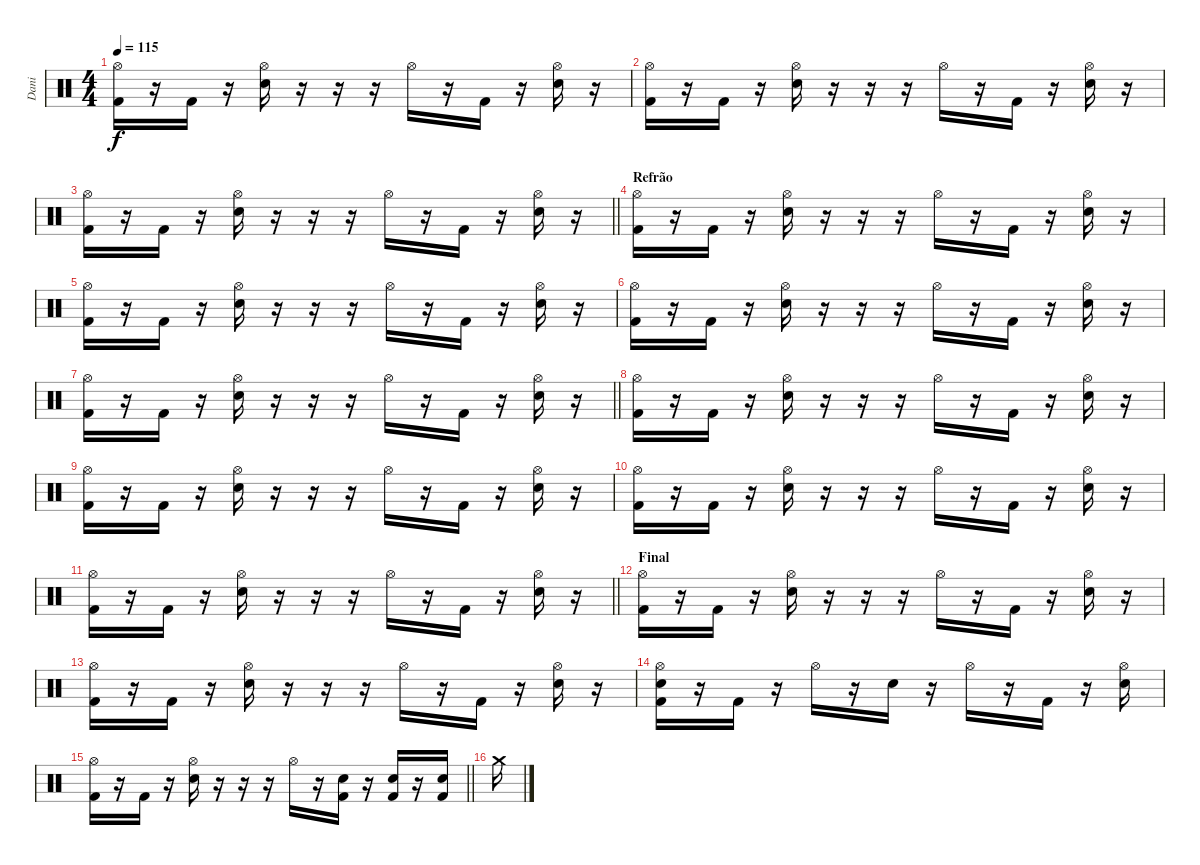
\track ("Dani" "Dani") {instrument percussion}
\staff {score}
\articulation defaults
\ts (4 4)
\tempo 115
\clef neutral
\ks c
("Hi-Hat (open)" "Kick (hit) 2").16{dy f} r.16 "Kick (hit) 2".16 r.16 ("Hi-Hat (open)" "Snare (hit) 2").16 r.16 r.16 r.16 "Hi-Hat (open)".16 r.16 "Kick (hit) 2".16 r.16 ("Hi-Hat (open)" "Snare (hit) 2").16 r.16 |
("Hi-Hat (open)" "Kick (hit) 2").16 r.16 "Kick (hit) 2".16 r.16 ("Hi-Hat (open)" "Snare (hit) 2").16 r.16 r.16 r.16 "Hi-Hat (open)".16 r.16 "Kick (hit) 2".16 r.16 ("Hi-Hat (open)" "Snare (hit) 2").16 r.16 |
\barLineRight lightlight
("Hi-Hat (open)" "Kick (hit) 2").16 r.16 "Kick (hit) 2".16 r.16 ("Hi-Hat (open)" "Snare (hit) 2").16 r.16 r.16 r.16 "Hi-Hat (open)".16 r.16 "Kick (hit) 2".16 r.16 ("Hi-Hat (open)" "Snare (hit) 2").16 r.16 |
\section ("" "Refrão")
("Hi-Hat (open)" "Kick (hit) 2").16 r.16 "Kick (hit) 2".16 r.16 ("Hi-Hat (open)" "Snare (hit) 2").16 r.16 r.16 r.16 "Hi-Hat (open)".16 r.16 "Kick (hit) 2".16 r.16 ("Hi-Hat (open)" "Snare (hit) 2").16 r.16 |
("Hi-Hat (open)" "Kick (hit) 2").16 r.16 "Kick (hit) 2".16 r.16 ("Hi-Hat (open)" "Snare (hit) 2").16 r.16 r.16 r.16 "Hi-Hat (open)".16 r.16 "Kick (hit) 2".16 r.16 ("Hi-Hat (open)" "Snare (hit) 2").16 r.16 |
("Hi-Hat (open)" "Kick (hit) 2").16 r.16 "Kick (hit) 2".16 r.16 ("Hi-Hat (open)" "Snare (hit) 2").16 r.16 r.16 r.16 "Hi-Hat (open)".16 r.16 "Kick (hit) 2".16 r.16 ("Hi-Hat (open)" "Snare (hit) 2").16 r.16 |
\barLineRight lightlight
("Hi-Hat (open)" "Kick (hit) 2").16 r.16 "Kick (hit) 2".16 r.16 ("Hi-Hat (open)" "Snare (hit) 2").16 r.16 r.16 r.16 "Hi-Hat (open)".16 r.16 "Kick (hit) 2".16 r.16 ("Hi-Hat (open)" "Snare (hit) 2").16 r.16 |
("Hi-Hat (open)" "Kick (hit) 2").16 r.16 "Kick (hit) 2".16 r.16 ("Hi-Hat (open)" "Snare (hit) 2").16 r.16 r.16 r.16 "Hi-Hat (open)".16 r.16 "Kick (hit) 2".16 r.16 ("Hi-Hat (open)" "Snare (hit) 2").16 r.16 |
("Hi-Hat (open)" "Kick (hit) 2").16 r.16 "Kick (hit) 2".16 r.16 ("Hi-Hat (open)" "Snare (hit) 2").16 r.16 r.16 r.16 "Hi-Hat (open)".16 r.16 "Kick (hit) 2".16 r.16 ("Hi-Hat (open)" "Snare (hit) 2").16 r.16 |
("Hi-Hat (open)" "Kick (hit) 2").16 r.16 "Kick (hit) 2".16 r.16 ("Hi-Hat (open)" "Snare (hit) 2").16 r.16 r.16 r.16 "Hi-Hat (open)".16 r.16 "Kick (hit) 2".16 r.16 ("Hi-Hat (open)" "Snare (hit) 2").16 r.16 |
\barLineRight lightlight
("Hi-Hat (open)" "Kick (hit) 2").16 r.16 "Kick (hit) 2".16 r.16 ("Hi-Hat (open)" "Snare (hit) 2").16 r.16 r.16 r.16 "Hi-Hat (open)".16 r.16 "Kick (hit) 2".16 r.16 ("Hi-Hat (open)" "Snare (hit) 2").16 r.16 |
\section ("" "Final")
("Hi-Hat (open)" "Kick (hit) 2").16 r.16 "Kick (hit) 2".16 r.16 ("Hi-Hat (open)" "Snare (hit) 2").16 r.16 r.16 r.16 "Hi-Hat (open)".16 r.16 "Kick (hit) 2".16 r.16 ("Hi-Hat (open)" "Snare (hit) 2").16 r.16 |
("Hi-Hat (open)" "Kick (hit) 2").16 r.16 "Kick (hit) 2".16 r.16 ("Hi-Hat (open)" "Snare (hit) 2").16 r.16 r.16 r.16 "Hi-Hat (open)".16 r.16 "Kick (hit) 2".16 r.16 ("Hi-Hat (open)" "Snare (hit) 2").16 r.16 |
("Hi-Hat (open)" "Snare (hit) 2" "Kick (hit) 2").16 r.16 "Kick (hit) 2".16 r.16 "Hi-Hat (open)".16 r.16 "Snare (hit) 2".16 r.16 "Hi-Hat (open)".16 r.16 "Kick (hit) 2".16 r.16 ("Hi-Hat (open)" "Snare (hit) 2").16 |
\barLineRight lightlight
("Hi-Hat (open)" "Kick (hit) 2").16 r.16 "Kick (hit) 2".16 r.16 ("Hi-Hat (open)" "Snare (hit) 2").16 r.16 r.16 r.16 "Hi-Hat (open)".16 r.16 ("Snare (hit) 2" "Kick (hit) 2").16 r.16 ("Snare (hit) 2" "Kick (hit) 2").16 r.16 ("Snare (hit) 2" "Kick (hit) 2").16 |
"Crash medium (hit)".16
